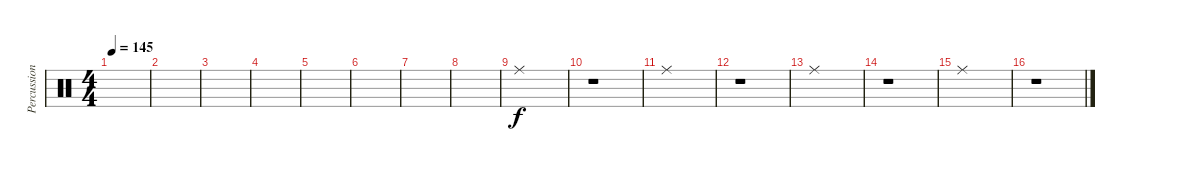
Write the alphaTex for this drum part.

\track ("Percussion" "Percussion") {instrument percussion}
\staff {score}
\articulation defaults
\ts (4 4)
\tempo 145
\clef neutral
\ks c
|
|
|
|
|
|
|
|
"Ride (middle)".1 |
r.1 |
"Ride (middle)".1 |
r.1 |
"Ride (middle)".1 |
r.1 |
"Ride (middle)".1 |
r.1
